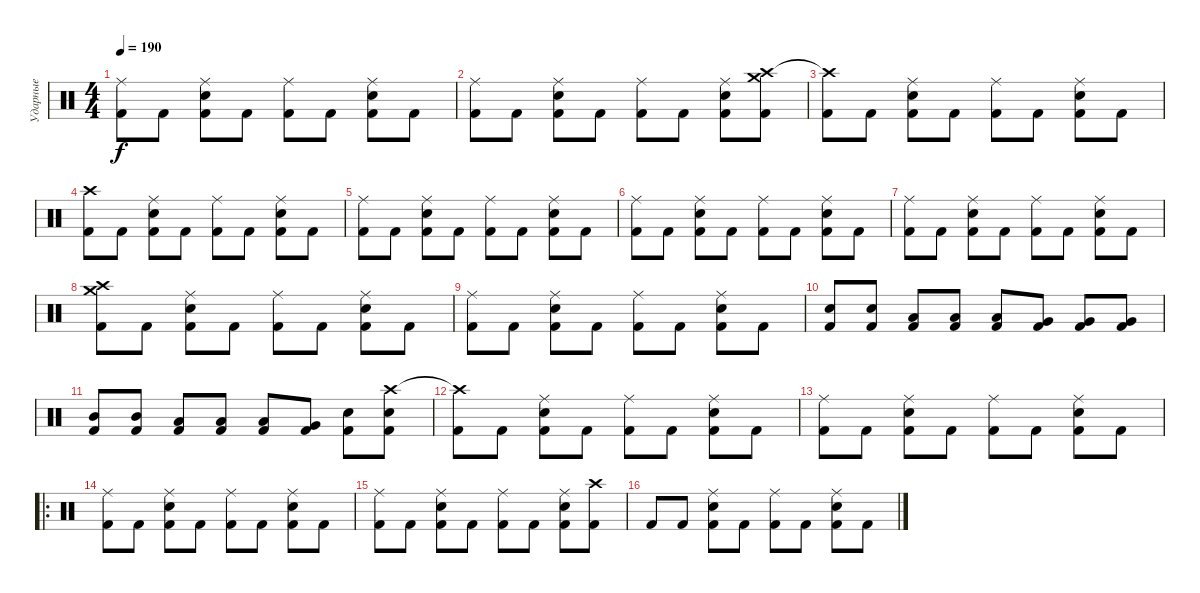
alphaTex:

\track ("Ударные" "Ударные") {instrument percussion}
\staff
\articulation defaults
\ts (4 4)
\tempo 190
\clef neutral
\ks c
("Ride (middle)" "Kick (hit) 2").8{dy f} "Kick (hit) 2".8 ("Ride (middle)" "Snare (hit) 2" "Kick (hit) 2").8 "Kick (hit) 2".8 ("Ride (middle)" "Kick (hit) 2").8 "Kick (hit) 2".8 ("Ride (middle)" "Snare (hit) 2" "Kick (hit) 2").8 "Kick (hit) 2".8 |
("Ride (middle)" "Kick (hit) 2").8 "Kick (hit) 2".8 ("Ride (middle)" "Snare (hit) 2" "Kick (hit) 2").8 "Kick (hit) 2".8 ("Ride (middle)" "Kick (hit) 2").8 "Kick (hit) 2".8 ("Ride (middle)" "Snare (hit) 2" "Kick (hit) 2").8 ("Crash high (hit)" "Crash medium (hit)" "Kick (hit) 2").8 |
("Crash high (hit)"{t} "Kick (hit) 2").8 "Kick (hit) 2".8 ("Ride (middle)" "Snare (hit) 2" "Kick (hit) 2").8 "Kick (hit) 2".8 ("Ride (middle)" "Kick (hit) 2").8 "Kick (hit) 2".8 ("Ride (middle)" "Snare (hit) 2" "Kick (hit) 2").8 "Kick (hit) 2".8 |
("Crash high (hit)" "Kick (hit) 2").8 "Kick (hit) 2".8 ("Ride (middle)" "Snare (hit) 2" "Kick (hit) 2").8 "Kick (hit) 2".8 ("Ride (middle)" "Kick (hit) 2").8 "Kick (hit) 2".8 ("Ride (middle)" "Snare (hit) 2" "Kick (hit) 2").8 "Kick (hit) 2".8 |
("Ride (middle)" "Kick (hit) 2").8 "Kick (hit) 2".8 ("Ride (middle)" "Snare (hit) 2" "Kick (hit) 2").8 "Kick (hit) 2".8 ("Ride (middle)" "Kick (hit) 2").8 "Kick (hit) 2".8 ("Ride (middle)" "Snare (hit) 2" "Kick (hit) 2").8 "Kick (hit) 2".8 |
("Ride (middle)" "Kick (hit) 2").8 "Kick (hit) 2".8 ("Ride (middle)" "Snare (hit) 2" "Kick (hit) 2").8 "Kick (hit) 2".8 ("Ride (middle)" "Kick (hit) 2").8 "Kick (hit) 2".8 ("Ride (middle)" "Snare (hit) 2" "Kick (hit) 2").8 "Kick (hit) 2".8 |
("Ride (middle)" "Kick (hit) 2").8 "Kick (hit) 2".8 ("Ride (middle)" "Snare (hit) 2" "Kick (hit) 2").8 "Kick (hit) 2".8 ("Ride (middle)" "Kick (hit) 2").8 "Kick (hit) 2".8 ("Ride (middle)" "Snare (hit) 2" "Kick (hit) 2").8 "Kick (hit) 2".8 |
("Crash high (hit)" "Crash medium (hit)" "Kick (hit) 2").8 "Kick (hit) 2".8 ("Ride (middle)" "Snare (hit) 2" "Kick (hit) 2").8 "Kick (hit) 2".8 ("Ride (middle)" "Kick (hit) 2").8 "Kick (hit) 2".8 ("Ride (middle)" "Snare (hit) 2" "Kick (hit) 2").8 "Kick (hit) 2".8 |
("Ride (middle)" "Kick (hit) 2").8 "Kick (hit) 2".8 ("Ride (middle)" "Snare (hit) 2" "Kick (hit) 2").8 "Kick (hit) 2".8 ("Ride (middle)" "Kick (hit) 2").8 "Kick (hit) 2".8 ("Ride (middle)" "Snare (hit) 2" "Kick (hit) 2").8 "Kick (hit) 2".8 |
("Snare (hit) 2" "Kick (hit) 2").8 ("Snare (hit) 2" "Kick (hit) 2").8 ("Low Tom (hit)" "Kick (hit) 2").8 ("Low Tom (hit)" "Kick (hit) 2").8 ("Low Tom (hit)" "Kick (hit) 2").8 ("Very Low Tom (hit)" "Kick (hit) 2").8 ("Very Low Tom (hit)" "Kick (hit) 2").8 ("Very Low Tom (hit)" "Kick (hit) 2").8 |
("Mid Tom (hit)" "Kick (hit) 2").8 ("Mid Tom (hit)" "Kick (hit) 2").8 ("Low Tom (hit)" "Kick (hit) 2").8 ("Low Tom (hit)" "Kick (hit) 2").8 ("Low Tom (hit)" "Kick (hit) 2").8 ("Very Low Tom (hit)" "Kick (hit) 2").8 ("Snare (hit) 2" "Kick (hit) 2").8 ("Crash high (hit)" "Snare (hit) 2" "Kick (hit) 2").8 |
("Crash high (hit)"{t} "Kick (hit) 2").8 "Kick (hit) 2".8 ("Ride (middle)" "Snare (hit) 2" "Kick (hit) 2").8 "Kick (hit) 2".8 ("Ride (middle)" "Kick (hit) 2").8 "Kick (hit) 2".8 ("Ride (middle)" "Snare (hit) 2" "Kick (hit) 2").8 "Kick (hit) 2".8 |
("Ride (middle)" "Kick (hit) 2").8 "Kick (hit) 2".8 ("Ride (middle)" "Snare (hit) 2" "Kick (hit) 2").8 "Kick (hit) 2".8 ("Ride (middle)" "Kick (hit) 2").8 "Kick (hit) 2".8 ("Ride (middle)" "Snare (hit) 2" "Kick (hit) 2").8 "Kick (hit) 2".8 |
\ro
("Ride (middle)" "Kick (hit) 2").8 "Kick (hit) 2".8 ("Ride (middle)" "Snare (hit) 2" "Kick (hit) 2").8 "Kick (hit) 2".8 ("Ride (middle)" "Kick (hit) 2").8 "Kick (hit) 2".8 ("Ride (middle)" "Snare (hit) 2" "Kick (hit) 2").8 "Kick (hit) 2".8 |
("Ride (middle)" "Kick (hit) 2").8 "Kick (hit) 2".8 ("Ride (middle)" "Snare (hit) 2" "Kick (hit) 2").8 "Kick (hit) 2".8 ("Ride (middle)" "Kick (hit) 2").8 "Kick (hit) 2".8 ("Ride (middle)" "Snare (hit) 2" "Kick (hit) 2").8 ("Crash high (hit)" "Kick (hit) 2").8 |
"Kick (hit) 2".8 "Kick (hit) 2".8 ("Ride (middle)" "Snare (hit) 2" "Kick (hit) 2").8 "Kick (hit) 2".8 ("Ride (middle)" "Kick (hit) 2").8 "Kick (hit) 2".8 ("Ride (middle)" "Snare (hit) 2" "Kick (hit) 2").8 "Kick (hit) 2".8
